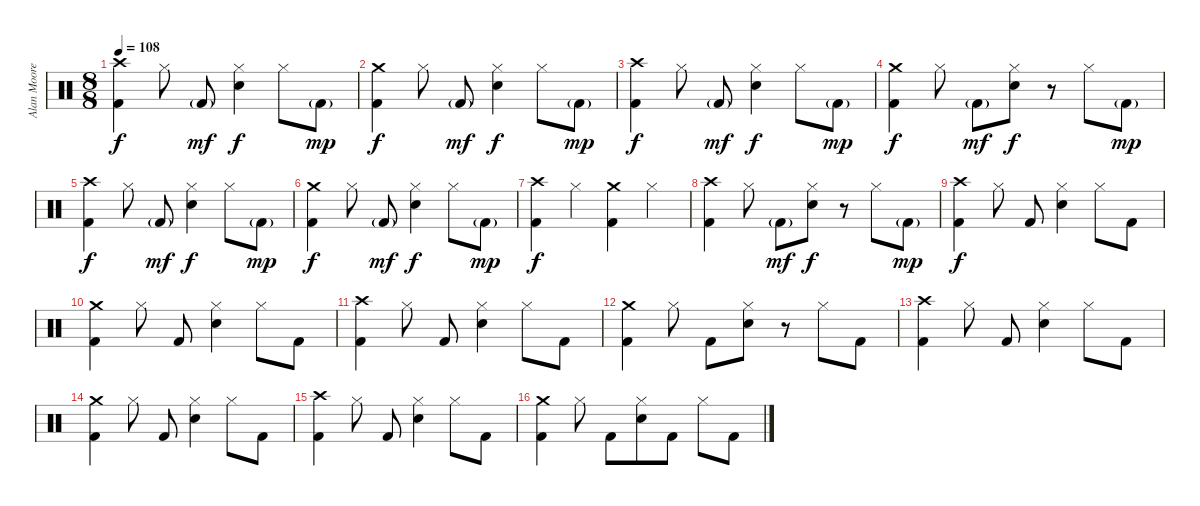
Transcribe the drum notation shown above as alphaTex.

\track ("Alan Moore" "Alan Moore") {instrument percussion}
\staff {score}
\articulation defaults
\ts (8 8)
\tempo 108
\clef neutral
\ks c
("Crash high (hit)" "Kick (hit) 2").4{dy f} "Hi-Hat (closed)".8 "Kick (hit) 2"{g}.8{dy mf} ("Hi-Hat (closed)" "Snare (hit) 2").4{dy f} "Hi-Hat (closed)".8 "Kick (hit) 2"{g}.8{dy mp} |
("Crash medium (hit)" "Kick (hit) 2").4{dy f} "Hi-Hat (closed)".8 "Kick (hit) 2"{g}.8{dy mf} ("Hi-Hat (closed)" "Snare (hit) 2").4{dy f} "Hi-Hat (closed)".8 "Kick (hit) 2"{g}.8{dy mp} |
("Crash high (hit)" "Kick (hit) 2").4{dy f} "Hi-Hat (closed)".8 "Kick (hit) 2"{g}.8{dy mf} ("Hi-Hat (closed)" "Snare (hit) 2").4{dy f} "Hi-Hat (closed)".8 "Kick (hit) 2"{g}.8{dy mp} |
("Crash medium (hit)" "Kick (hit) 2").4{dy f} "Hi-Hat (closed)".8 "Kick (hit) 2"{g}.8{dy mf} ("Hi-Hat (closed)" "Snare (hit) 2").8{dy f} r.8 "Hi-Hat (closed)".8 "Kick (hit) 2"{g}.8{dy mp} |
("Crash high (hit)" "Kick (hit) 2").4{dy f} "Hi-Hat (closed)".8 "Kick (hit) 2"{g}.8{dy mf} ("Hi-Hat (closed)" "Snare (hit) 2").4{dy f} "Hi-Hat (closed)".8 "Kick (hit) 2"{g}.8{dy mp} |
("Crash medium (hit)" "Kick (hit) 2").4{dy f} "Hi-Hat (closed)".8 "Kick (hit) 2"{g}.8{dy mf} ("Hi-Hat (closed)" "Snare (hit) 2").4{dy f} "Hi-Hat (closed)".8 "Kick (hit) 2"{g}.8{dy mp} |
("Crash high (hit)" "Kick (hit) 2").4{dy f} "Hi-Hat (closed)".4 ("Crash medium (hit)" "Kick (hit) 2").4 "Hi-Hat (closed)".4 |
("Crash high (hit)" "Kick (hit) 2").4 "Hi-Hat (closed)".8 "Kick (hit) 2"{g}.8{dy mf} ("Hi-Hat (closed)" "Snare (hit) 2").8{dy f} r.8 "Hi-Hat (closed)".8 "Kick (hit) 2"{g}.8{dy mp} |
("Crash high (hit)" "Kick (hit) 2").4{dy f} "Hi-Hat (closed)".8 "Kick (hit) 2".8 ("Hi-Hat (closed)" "Snare (hit) 2").4 "Hi-Hat (closed)".8 "Kick (hit) 2".8 |
("Crash medium (hit)" "Kick (hit) 2").4 "Hi-Hat (closed)".8 "Kick (hit) 2".8 ("Hi-Hat (closed)" "Snare (hit) 2").4 "Hi-Hat (closed)".8 "Kick (hit) 2".8 |
("Crash high (hit)" "Kick (hit) 2").4 "Hi-Hat (closed)".8 "Kick (hit) 2".8 ("Hi-Hat (closed)" "Snare (hit) 2").4 "Hi-Hat (closed)".8 "Kick (hit) 2".8 |
("Crash medium (hit)" "Kick (hit) 2").4 "Hi-Hat (closed)".8 "Kick (hit) 2".8 ("Hi-Hat (closed)" "Snare (hit) 2").8 r.8 "Hi-Hat (closed)".8 "Kick (hit) 2".8 |
("Crash high (hit)" "Kick (hit) 2").4 "Hi-Hat (closed)".8 "Kick (hit) 2".8 ("Hi-Hat (closed)" "Snare (hit) 2").4 "Hi-Hat (closed)".8 "Kick (hit) 2".8 |
("Crash medium (hit)" "Kick (hit) 2").4 "Hi-Hat (closed)".8 "Kick (hit) 2".8 ("Hi-Hat (closed)" "Snare (hit) 2").4 "Hi-Hat (closed)".8 "Kick (hit) 2".8 |
("Crash high (hit)" "Kick (hit) 2").4 "Hi-Hat (closed)".8 "Kick (hit) 2".8 ("Hi-Hat (closed)" "Snare (hit) 2").4 "Hi-Hat (closed)".8 "Kick (hit) 2".8 |
("Crash medium (hit)" "Kick (hit) 2").4 "Hi-Hat (closed)".8 "Kick (hit) 2".8 ("Hi-Hat (closed)" "Snare (hit) 2").8 "Kick (hit) 2".8 "Hi-Hat (closed)".8 "Kick (hit) 2".8
